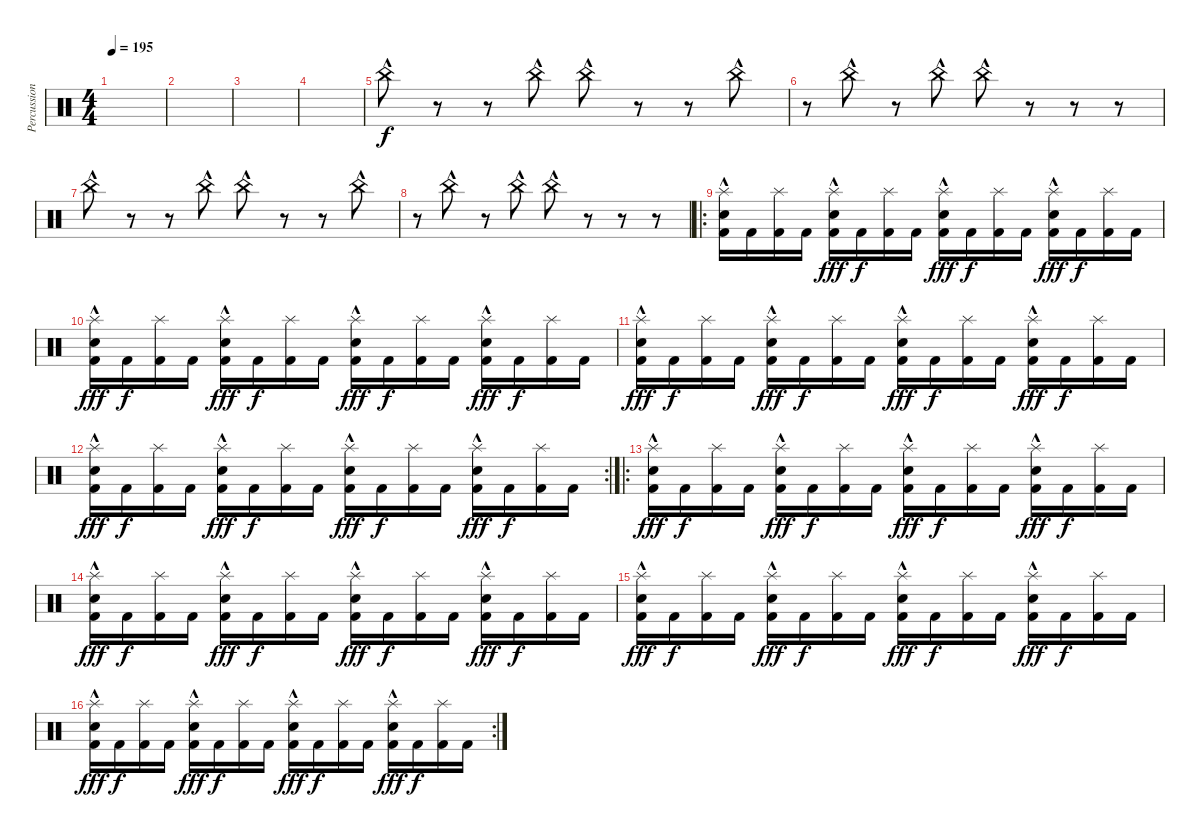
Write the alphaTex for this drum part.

\track ("Percussion" "Percussion") {instrument percussion}
\staff {score}
\articulation defaults
\ts (4 4)
\tempo 195
\clef neutral
\ks c
|
|
|
|
"China (hit)"{hac}.8{volume 16} r.8{volume 0} r.8 "China (hit)"{hac}.8{volume 16} "China (hit)"{hac}.8 r.8{volume 0} r.8 "China (hit)"{hac}.8{volume 16} |
r.8{volume 0} "China (hit)"{hac}.8{volume 16} r.8{volume 0} "China (hit)"{hac}.8{volume 16} "China (hit)"{hac}.8 r.8{volume 0} r.8 r.8 |
"China (hit)"{hac}.8{volume 16} r.8{volume 0} r.8 "China (hit)"{hac}.8{volume 16} "China (hit)"{hac}.8 r.8{volume 0} r.8 "China (hit)"{hac}.8{volume 16} |
r.8{volume 0} "China (hit)"{hac}.8{volume 16} r.8{volume 0} "China (hit)"{hac}.8{volume 16} "China (hit)"{hac}.8 r.8{volume 0} r.8 r.8 |
\ro
("Splash (hit)" "Snare (hit) 2"{hac} "Kick (hit) 2").16{volume 16} "Kick (hit) 2".16{dy f} ("Splash (hit)" "Kick (hit) 2").16 "Kick (hit) 2".16 ("Splash (hit)" "Snare (hit) 2"{hac} "Kick (hit) 2").16{dy fff} "Kick (hit) 2".16{dy f} ("Splash (hit)" "Kick (hit) 2").16 "Kick (hit) 2".16 ("Splash (hit)" "Snare (hit) 2"{hac} "Kick (hit) 2").16{dy fff} "Kick (hit) 2".16{dy f} ("Splash (hit)" "Kick (hit) 2").16 "Kick (hit) 2".16 ("Splash (hit)" "Snare (hit) 2"{hac} "Kick (hit) 2").16{dy fff} "Kick (hit) 2".16{dy f} ("Splash (hit)" "Kick (hit) 2").16 "Kick (hit) 2".16 |
("Splash (hit)" "Snare (hit) 2"{hac} "Kick (hit) 2").16{dy fff} "Kick (hit) 2".16{dy f} ("Splash (hit)" "Kick (hit) 2").16 "Kick (hit) 2".16 ("Splash (hit)" "Snare (hit) 2"{hac} "Kick (hit) 2").16{dy fff} "Kick (hit) 2".16{dy f} ("Splash (hit)" "Kick (hit) 2").16 "Kick (hit) 2".16 ("Splash (hit)" "Snare (hit) 2"{hac} "Kick (hit) 2").16{dy fff} "Kick (hit) 2".16{dy f} ("Splash (hit)" "Kick (hit) 2").16 "Kick (hit) 2".16 ("Splash (hit)" "Snare (hit) 2"{hac} "Kick (hit) 2").16{dy fff} "Kick (hit) 2".16{dy f} ("Splash (hit)" "Kick (hit) 2").16 "Kick (hit) 2".16 |
("Splash (hit)" "Snare (hit) 2"{hac} "Kick (hit) 2").16{dy fff} "Kick (hit) 2".16{dy f} ("Splash (hit)" "Kick (hit) 2").16 "Kick (hit) 2".16 ("Splash (hit)" "Snare (hit) 2"{hac} "Kick (hit) 2").16{dy fff} "Kick (hit) 2".16{dy f} ("Splash (hit)" "Kick (hit) 2").16 "Kick (hit) 2".16 ("Splash (hit)" "Snare (hit) 2"{hac} "Kick (hit) 2").16{dy fff} "Kick (hit) 2".16{dy f} ("Splash (hit)" "Kick (hit) 2").16 "Kick (hit) 2".16 ("Splash (hit)" "Snare (hit) 2"{hac} "Kick (hit) 2").16{dy fff} "Kick (hit) 2".16{dy f} ("Splash (hit)" "Kick (hit) 2").16 "Kick (hit) 2".16 |
\rc 2
("Splash (hit)" "Snare (hit) 2"{hac} "Kick (hit) 2").16{dy fff} "Kick (hit) 2".16{dy f} ("Splash (hit)" "Kick (hit) 2").16 "Kick (hit) 2".16 ("Splash (hit)" "Snare (hit) 2"{hac} "Kick (hit) 2").16{dy fff} "Kick (hit) 2".16{dy f} ("Splash (hit)" "Kick (hit) 2").16 "Kick (hit) 2".16 ("Splash (hit)" "Snare (hit) 2"{hac} "Kick (hit) 2").16{dy fff} "Kick (hit) 2".16{dy f} ("Splash (hit)" "Kick (hit) 2").16 "Kick (hit) 2".16 ("Splash (hit)" "Snare (hit) 2"{hac} "Kick (hit) 2").16{dy fff} "Kick (hit) 2".16{dy f} ("Splash (hit)" "Kick (hit) 2").16 "Kick (hit) 2".16 |
\ro
("Splash (hit)" "Snare (hit) 2"{hac} "Kick (hit) 2").16{dy fff} "Kick (hit) 2".16{dy f} ("Splash (hit)" "Kick (hit) 2").16 "Kick (hit) 2".16 ("Splash (hit)" "Snare (hit) 2"{hac} "Kick (hit) 2").16{dy fff} "Kick (hit) 2".16{dy f} ("Splash (hit)" "Kick (hit) 2").16 "Kick (hit) 2".16 ("Splash (hit)" "Snare (hit) 2"{hac} "Kick (hit) 2").16{dy fff} "Kick (hit) 2".16{dy f} ("Splash (hit)" "Kick (hit) 2").16 "Kick (hit) 2".16 ("Splash (hit)" "Snare (hit) 2"{hac} "Kick (hit) 2").16{dy fff} "Kick (hit) 2".16{dy f} ("Splash (hit)" "Kick (hit) 2").16 "Kick (hit) 2".16 |
("Splash (hit)" "Snare (hit) 2"{hac} "Kick (hit) 2").16{dy fff} "Kick (hit) 2".16{dy f} ("Splash (hit)" "Kick (hit) 2").16 "Kick (hit) 2".16 ("Splash (hit)" "Snare (hit) 2"{hac} "Kick (hit) 2").16{dy fff} "Kick (hit) 2".16{dy f} ("Splash (hit)" "Kick (hit) 2").16 "Kick (hit) 2".16 ("Splash (hit)" "Snare (hit) 2"{hac} "Kick (hit) 2").16{dy fff} "Kick (hit) 2".16{dy f} ("Splash (hit)" "Kick (hit) 2").16 "Kick (hit) 2".16 ("Splash (hit)" "Snare (hit) 2"{hac} "Kick (hit) 2").16{dy fff} "Kick (hit) 2".16{dy f} ("Splash (hit)" "Kick (hit) 2").16 "Kick (hit) 2".16 |
("Splash (hit)" "Snare (hit) 2"{hac} "Kick (hit) 2").16{dy fff} "Kick (hit) 2".16{dy f} ("Splash (hit)" "Kick (hit) 2").16 "Kick (hit) 2".16 ("Splash (hit)" "Snare (hit) 2"{hac} "Kick (hit) 2").16{dy fff} "Kick (hit) 2".16{dy f} ("Splash (hit)" "Kick (hit) 2").16 "Kick (hit) 2".16 ("Splash (hit)" "Snare (hit) 2"{hac} "Kick (hit) 2").16{dy fff} "Kick (hit) 2".16{dy f} ("Splash (hit)" "Kick (hit) 2").16 "Kick (hit) 2".16 ("Splash (hit)" "Snare (hit) 2"{hac} "Kick (hit) 2").16{dy fff} "Kick (hit) 2".16{dy f} ("Splash (hit)" "Kick (hit) 2").16 "Kick (hit) 2".16 |
\rc 2
("Splash (hit)" "Snare (hit) 2"{hac} "Kick (hit) 2").16{dy fff} "Kick (hit) 2".16{dy f} ("Splash (hit)" "Kick (hit) 2").16 "Kick (hit) 2".16 ("Splash (hit)" "Snare (hit) 2"{hac} "Kick (hit) 2").16{dy fff} "Kick (hit) 2".16{dy f} ("Splash (hit)" "Kick (hit) 2").16 "Kick (hit) 2".16 ("Splash (hit)" "Snare (hit) 2"{hac} "Kick (hit) 2").16{dy fff} "Kick (hit) 2".16{dy f} ("Splash (hit)" "Kick (hit) 2").16 "Kick (hit) 2".16 ("Splash (hit)" "Snare (hit) 2"{hac} "Kick (hit) 2").16{dy fff} "Kick (hit) 2".16{dy f} ("Splash (hit)" "Kick (hit) 2").16 "Kick (hit) 2".16
